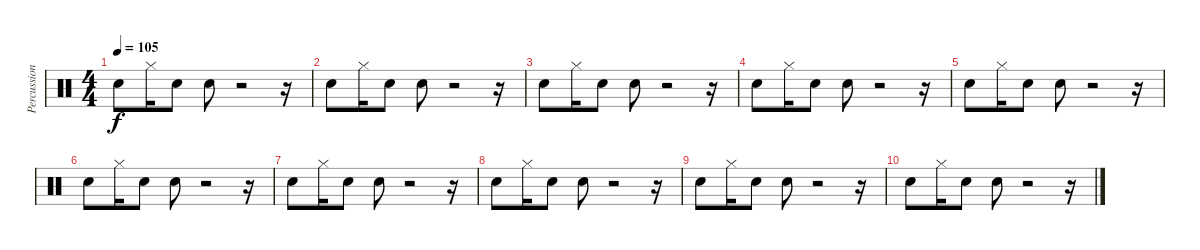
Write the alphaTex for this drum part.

\track ("Percussions" "Percussion") {instrument percussion}
\staff {score}
\articulation defaults
\ts (4 4)
\tempo 105
\clef neutral
\ks c "Snare (hit) 2".8{dy f} "Hi-Hat (closed)".16 "Snare (hit) 2".8 "Snare (hit) 2".8
r.2 r.16 |
"Snare (hit) 2".8 "Hi-Hat (closed)".16 "Snare (hit) 2".8 "Snare (hit) 2".8 r.2 r.16 |
"Snare (hit) 2".8 "Hi-Hat (closed)".16 "Snare (hit) 2".8 "Snare (hit) 2".8 r.2 r.16 |
"Snare (hit) 2".8 "Hi-Hat (closed)".16 "Snare (hit) 2".8 "Snare (hit) 2".8 r.2 r.16 |
"Snare (hit) 2".8 "Hi-Hat (closed)".16 "Snare (hit) 2".8 "Snare (hit) 2".8 r.2 r.16 |
"Snare (hit) 2".8 "Hi-Hat (closed)".16 "Snare (hit) 2".8 "Snare (hit) 2".8 r.2 r.16 |
"Snare (hit) 2".8 "Hi-Hat (closed)".16 "Snare (hit) 2".8 "Snare (hit) 2".8 r.2 r.16 |
"Snare (hit) 2".8 "Hi-Hat (closed)".16 "Snare (hit) 2".8 "Snare (hit) 2".8 r.2 r.16 |
"Snare (hit) 2".8 "Hi-Hat (closed)".16 "Snare (hit) 2".8 "Snare (hit) 2".8 r.2 r.16 |
"Snare (hit) 2".8 "Hi-Hat (closed)".16 "Snare (hit) 2".8 "Snare (hit) 2".8 r.2 r.16
